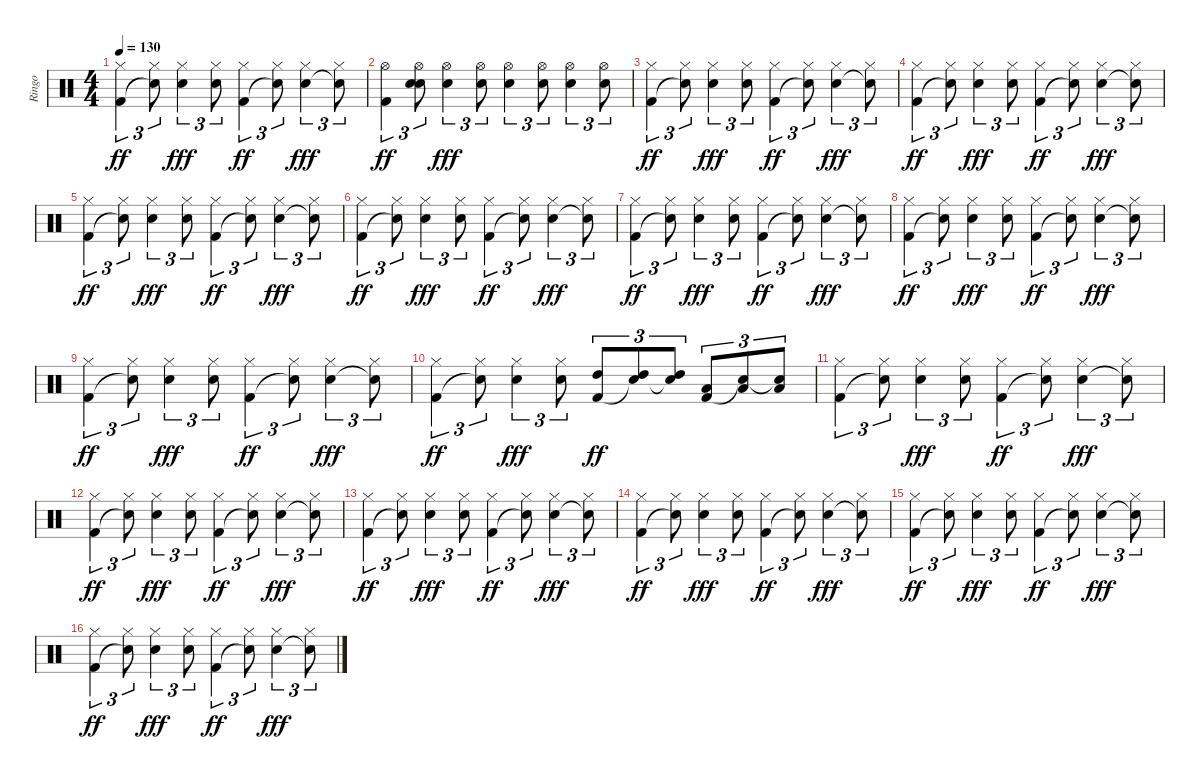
\track ("Ringo" "Ringo") {instrument percussion}
\staff {score}
\articulation defaults
\ts (4 4)
\tempo 130
\clef neutral
\ks c
("Hi-Hat (closed)" "Kick (hit) 2").4{tu (3 2) dy ff} ("Hi-Hat (closed)" "Snare (hit)"{t}).8{tu (3 2)} ("Hi-Hat (closed)" "Electric Snare (hit)").4{tu (3 2) dy fff} ("Hi-Hat (closed)" "Electric Snare (hit)").8{tu (3 2)} ("Hi-Hat (closed)" "Kick (hit) 2").4{tu (3 2) dy ff} ("Hi-Hat (closed)" "Snare (hit)"{t}).8{tu (3 2)} ("Hi-Hat (closed)" "Electric Snare (hit)").4{tu (3 2) dy fff} ("Hi-Hat (closed)" "Snare (hit)"{t}).8{tu (3 2)} |
("Hi-Hat (open)" "Kick (hit) 2").4{tu (3 2) dy ff} ("Hi-Hat (open)" "Electric Snare (hit)" "Snare (hit)").8{tu (3 2)} ("Hi-Hat (open)" "Electric Snare (hit)").4{tu (3 2) dy fff} ("Hi-Hat (open)" "Electric Snare (hit)").8{tu (3 2)} ("Hi-Hat (open)" "Electric Snare (hit)").4{tu (3 2)} ("Hi-Hat (open)" "Electric Snare (hit)").8{tu (3 2)} ("Hi-Hat (open)" "Electric Snare (hit)").4{tu (3 2)} ("Hi-Hat (open)" "Electric Snare (hit)").8{tu (3 2)} |
("Hi-Hat (closed)" "Kick (hit) 2").4{tu (3 2) dy ff} ("Hi-Hat (closed)" "Snare (hit)"{t}).8{tu (3 2)} ("Hi-Hat (closed)" "Electric Snare (hit)").4{tu (3 2) dy fff} ("Hi-Hat (closed)" "Electric Snare (hit)").8{tu (3 2)} ("Hi-Hat (closed)" "Kick (hit) 2").4{tu (3 2) dy ff} ("Hi-Hat (closed)" "Snare (hit)"{t}).8{tu (3 2)} ("Hi-Hat (closed)" "Electric Snare (hit)").4{tu (3 2) dy fff} ("Hi-Hat (closed)" "Snare (hit)"{t}).8{tu (3 2)} |
("Hi-Hat (closed)" "Kick (hit) 2").4{tu (3 2) dy ff} ("Hi-Hat (closed)" "Snare (hit)"{t}).8{tu (3 2)} ("Hi-Hat (closed)" "Electric Snare (hit)").4{tu (3 2) dy fff} ("Hi-Hat (closed)" "Electric Snare (hit)").8{tu (3 2)} ("Hi-Hat (closed)" "Kick (hit) 2").4{tu (3 2) dy ff} ("Hi-Hat (closed)" "Snare (hit)"{t}).8{tu (3 2)} ("Hi-Hat (closed)" "Electric Snare (hit)").4{tu (3 2) dy fff} ("Hi-Hat (closed)" "Snare (hit)"{t}).8{tu (3 2)} |
("Hi-Hat (closed)" "Kick (hit) 2").4{tu (3 2) dy ff} ("Hi-Hat (closed)" "Snare (hit)"{t}).8{tu (3 2)} ("Hi-Hat (closed)" "Electric Snare (hit)").4{tu (3 2) dy fff} ("Hi-Hat (closed)" "Electric Snare (hit)").8{tu (3 2)} ("Hi-Hat (closed)" "Kick (hit) 2").4{tu (3 2) dy ff} ("Hi-Hat (closed)" "Snare (hit)"{t}).8{tu (3 2)} ("Hi-Hat (closed)" "Electric Snare (hit)").4{tu (3 2) dy fff} ("Hi-Hat (closed)" "Snare (hit)"{t}).8{tu (3 2)} |
("Hi-Hat (closed)" "Kick (hit) 2").4{tu (3 2) dy ff} ("Hi-Hat (closed)" "Snare (hit)"{t}).8{tu (3 2)} ("Hi-Hat (closed)" "Electric Snare (hit)").4{tu (3 2) dy fff} ("Hi-Hat (closed)" "Electric Snare (hit)").8{tu (3 2)} ("Hi-Hat (closed)" "Kick (hit) 2").4{tu (3 2) dy ff} ("Hi-Hat (closed)" "Snare (hit)"{t}).8{tu (3 2)} ("Hi-Hat (closed)" "Electric Snare (hit)").4{tu (3 2) dy fff} ("Hi-Hat (closed)" "Snare (hit)"{t}).8{tu (3 2)} |
("Hi-Hat (closed)" "Kick (hit) 2").4{tu (3 2) dy ff} ("Hi-Hat (closed)" "Snare (hit)"{t}).8{tu (3 2)} ("Hi-Hat (closed)" "Electric Snare (hit)").4{tu (3 2) dy fff} ("Hi-Hat (closed)" "Electric Snare (hit)").8{tu (3 2)} ("Hi-Hat (closed)" "Kick (hit) 2").4{tu (3 2) dy ff} ("Hi-Hat (closed)" "Snare (hit)"{t}).8{tu (3 2)} ("Hi-Hat (closed)" "Electric Snare (hit)").4{tu (3 2) dy fff} ("Hi-Hat (closed)" "Snare (hit)"{t}).8{tu (3 2)} |
("Hi-Hat (closed)" "Kick (hit) 2").4{tu (3 2) dy ff} ("Hi-Hat (closed)" "Snare (hit)"{t}).8{tu (3 2)} ("Hi-Hat (closed)" "Electric Snare (hit)").4{tu (3 2) dy fff} ("Hi-Hat (closed)" "Electric Snare (hit)").8{tu (3 2)} ("Hi-Hat (closed)" "Kick (hit) 2").4{tu (3 2) dy ff} ("Hi-Hat (closed)" "Snare (hit)"{t}).8{tu (3 2)} ("Hi-Hat (closed)" "Electric Snare (hit)").4{tu (3 2) dy fff} ("Hi-Hat (closed)" "Snare (hit)"{t}).8{tu (3 2)} |
("Hi-Hat (closed)" "Kick (hit) 2").4{tu (3 2) dy ff} ("Hi-Hat (closed)" "Snare (hit)"{t}).8{tu (3 2)} ("Hi-Hat (closed)" "Electric Snare (hit)").4{tu (3 2) dy fff} ("Hi-Hat (closed)" "Electric Snare (hit)").8{tu (3 2)} ("Hi-Hat (closed)" "Kick (hit) 2").4{tu (3 2) dy ff} ("Hi-Hat (closed)" "Snare (hit)"{t}).8{tu (3 2)} ("Hi-Hat (closed)" "Electric Snare (hit)").4{tu (3 2) dy fff} ("Hi-Hat (closed)" "Snare (hit)"{t}).8{tu (3 2)} |
("Hi-Hat (closed)" "Kick (hit) 2").4{tu (3 2) dy ff} ("Hi-Hat (closed)" "Snare (hit)"{t}).8{tu (3 2)} ("Hi-Hat (closed)" "Electric Snare (hit)").4{tu (3 2) dy fff} ("Hi-Hat (closed)" "Electric Snare (hit)").8{tu (3 2)} ("High Tom (hit)" "Kick (hit) 2").8{tu (3 2) dy ff} ("High Tom (hit)" "Snare (hit)"{t}).8{tu (3 2)} ("High Tom (hit)" "Snare (hit)"{t}).8{tu (3 2)} ("Low Tom (hit)" "Kick (hit) 2").8{tu (3 2)} ("Low Tom (hit)" "Snare (hit)"{t}).8{tu (3 2)} ("Low Tom (hit)" "Snare (hit)"{t}).8{tu (3 2)} |
("Hi-Hat (closed)" "Kick (hit) 2").4{tu (3 2)} ("Hi-Hat (closed)" "Snare (hit)"{t}).8{tu (3 2)} ("Hi-Hat (closed)" "Electric Snare (hit)").4{tu (3 2) dy fff} ("Hi-Hat (closed)" "Electric Snare (hit)").8{tu (3 2)} ("Hi-Hat (closed)" "Kick (hit) 2").4{tu (3 2) dy ff} ("Hi-Hat (closed)" "Snare (hit)"{t}).8{tu (3 2)} ("Hi-Hat (closed)" "Electric Snare (hit)").4{tu (3 2) dy fff} ("Hi-Hat (closed)" "Snare (hit)"{t}).8{tu (3 2)} |
("Hi-Hat (closed)" "Kick (hit) 2").4{tu (3 2) dy ff} ("Hi-Hat (closed)" "Snare (hit)"{t}).8{tu (3 2)} ("Hi-Hat (closed)" "Electric Snare (hit)").4{tu (3 2) dy fff} ("Hi-Hat (closed)" "Electric Snare (hit)").8{tu (3 2)} ("Hi-Hat (closed)" "Kick (hit) 2").4{tu (3 2) dy ff} ("Hi-Hat (closed)" "Snare (hit)"{t}).8{tu (3 2)} ("Hi-Hat (closed)" "Electric Snare (hit)").4{tu (3 2) dy fff} ("Hi-Hat (closed)" "Snare (hit)"{t}).8{tu (3 2)} |
("Hi-Hat (closed)" "Kick (hit) 2").4{tu (3 2) dy ff} ("Hi-Hat (closed)" "Snare (hit)"{t}).8{tu (3 2)} ("Hi-Hat (closed)" "Electric Snare (hit)").4{tu (3 2) dy fff} ("Hi-Hat (closed)" "Electric Snare (hit)").8{tu (3 2)} ("Hi-Hat (closed)" "Kick (hit) 2").4{tu (3 2) dy ff} ("Hi-Hat (closed)" "Snare (hit)"{t}).8{tu (3 2)} ("Hi-Hat (closed)" "Electric Snare (hit)").4{tu (3 2) dy fff} ("Hi-Hat (closed)" "Snare (hit)"{t}).8{tu (3 2)} |
("Hi-Hat (closed)" "Kick (hit) 2").4{tu (3 2) dy ff} ("Hi-Hat (closed)" "Snare (hit)"{t}).8{tu (3 2)} ("Hi-Hat (closed)" "Electric Snare (hit)").4{tu (3 2) dy fff} ("Hi-Hat (closed)" "Electric Snare (hit)").8{tu (3 2)} ("Hi-Hat (closed)" "Kick (hit) 2").4{tu (3 2) dy ff} ("Hi-Hat (closed)" "Snare (hit)"{t}).8{tu (3 2)} ("Hi-Hat (closed)" "Electric Snare (hit)").4{tu (3 2) dy fff} ("Hi-Hat (closed)" "Snare (hit)"{t}).8{tu (3 2)} |
("Hi-Hat (closed)" "Kick (hit) 2").4{tu (3 2) dy ff} ("Hi-Hat (closed)" "Snare (hit)"{t}).8{tu (3 2)} ("Hi-Hat (closed)" "Electric Snare (hit)").4{tu (3 2) dy fff} ("Hi-Hat (closed)" "Electric Snare (hit)").8{tu (3 2)} ("Hi-Hat (closed)" "Kick (hit) 2").4{tu (3 2) dy ff} ("Hi-Hat (closed)" "Snare (hit)"{t}).8{tu (3 2)} ("Hi-Hat (closed)" "Electric Snare (hit)").4{tu (3 2) dy fff} ("Hi-Hat (closed)" "Snare (hit)"{t}).8{tu (3 2)} |
("Hi-Hat (closed)" "Kick (hit) 2").4{tu (3 2) dy ff} ("Hi-Hat (closed)" "Snare (hit)"{t}).8{tu (3 2)} ("Hi-Hat (closed)" "Electric Snare (hit)").4{tu (3 2) dy fff} ("Hi-Hat (closed)" "Electric Snare (hit)").8{tu (3 2)} ("Hi-Hat (closed)" "Kick (hit) 2").4{tu (3 2) dy ff} ("Hi-Hat (closed)" "Snare (hit)"{t}).8{tu (3 2)} ("Hi-Hat (closed)" "Electric Snare (hit)").4{tu (3 2) dy fff} ("Hi-Hat (closed)" "Snare (hit)"{t}).8{tu (3 2)}
